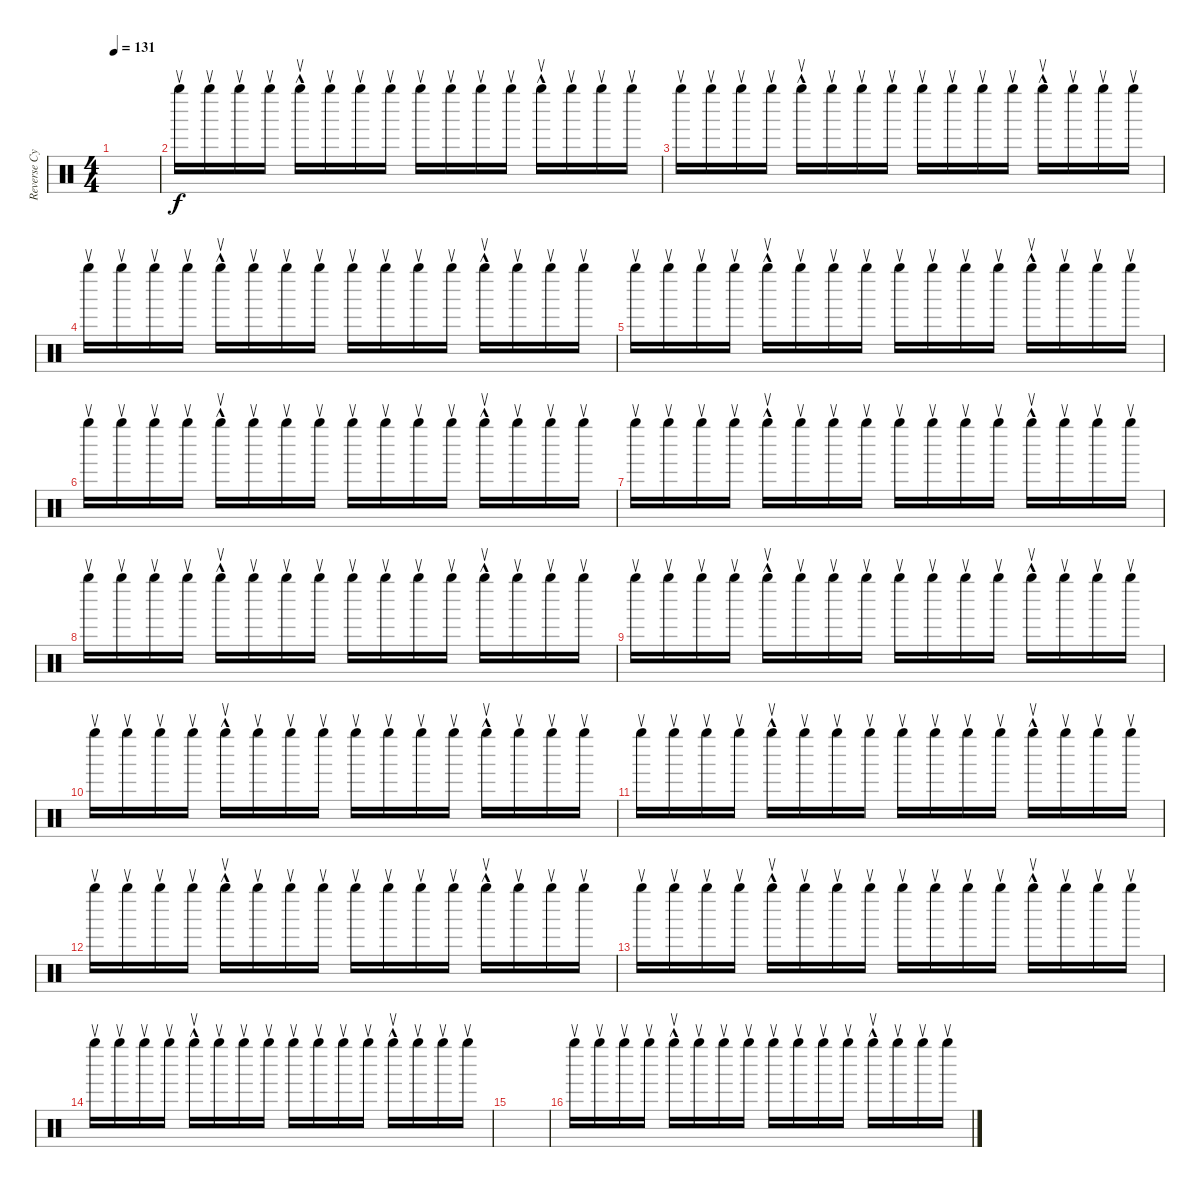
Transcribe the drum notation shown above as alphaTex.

\track ("Reverse Cymbal" "Reverse Cy") {instrument percussion}
\staff {score}
\articulation defaults
\ts (4 4)
\tempo 131
\clef neutral
\ks c
|
"Right Maraca (return)".16 "Right Maraca (return)".16 "Right Maraca (return)".16 "Right Maraca (return)".16 "Right Maraca (return)"{hac}.16 "Right Maraca (return)".16 "Right Maraca (return)".16 "Right Maraca (return)".16 "Right Maraca (return)".16 "Right Maraca (return)".16 "Right Maraca (return)".16 "Right Maraca (return)".16 "Right Maraca (return)"{hac}.16 "Right Maraca (return)".16 "Right Maraca (return)".16 "Right Maraca (return)".16 |
"Right Maraca (return)".16 "Right Maraca (return)".16 "Right Maraca (return)".16 "Right Maraca (return)".16 "Right Maraca (return)"{hac}.16 "Right Maraca (return)".16 "Right Maraca (return)".16 "Right Maraca (return)".16 "Right Maraca (return)".16 "Right Maraca (return)".16 "Right Maraca (return)".16 "Right Maraca (return)".16 "Right Maraca (return)"{hac}.16 "Right Maraca (return)".16 "Right Maraca (return)".16 "Right Maraca (return)".16 |
"Right Maraca (return)".16 "Right Maraca (return)".16 "Right Maraca (return)".16 "Right Maraca (return)".16 "Right Maraca (return)"{hac}.16 "Right Maraca (return)".16 "Right Maraca (return)".16 "Right Maraca (return)".16 "Right Maraca (return)".16 "Right Maraca (return)".16 "Right Maraca (return)".16 "Right Maraca (return)".16 "Right Maraca (return)"{hac}.16 "Right Maraca (return)".16 "Right Maraca (return)".16 "Right Maraca (return)".16 |
"Right Maraca (return)".16 "Right Maraca (return)".16 "Right Maraca (return)".16 "Right Maraca (return)".16 "Right Maraca (return)"{hac}.16 "Right Maraca (return)".16 "Right Maraca (return)".16 "Right Maraca (return)".16 "Right Maraca (return)".16 "Right Maraca (return)".16 "Right Maraca (return)".16 "Right Maraca (return)".16 "Right Maraca (return)"{hac}.16 "Right Maraca (return)".16 "Right Maraca (return)".16 "Right Maraca (return)".16 |
"Right Maraca (return)".16 "Right Maraca (return)".16 "Right Maraca (return)".16 "Right Maraca (return)".16 "Right Maraca (return)"{hac}.16 "Right Maraca (return)".16 "Right Maraca (return)".16 "Right Maraca (return)".16 "Right Maraca (return)".16 "Right Maraca (return)".16 "Right Maraca (return)".16 "Right Maraca (return)".16 "Right Maraca (return)"{hac}.16 "Right Maraca (return)".16 "Right Maraca (return)".16 "Right Maraca (return)".16 |
"Right Maraca (return)".16 "Right Maraca (return)".16 "Right Maraca (return)".16 "Right Maraca (return)".16 "Right Maraca (return)"{hac}.16 "Right Maraca (return)".16 "Right Maraca (return)".16 "Right Maraca (return)".16 "Right Maraca (return)".16 "Right Maraca (return)".16 "Right Maraca (return)".16 "Right Maraca (return)".16 "Right Maraca (return)"{hac}.16 "Right Maraca (return)".16 "Right Maraca (return)".16 "Right Maraca (return)".16 |
"Right Maraca (return)".16 "Right Maraca (return)".16 "Right Maraca (return)".16 "Right Maraca (return)".16 "Right Maraca (return)"{hac}.16 "Right Maraca (return)".16 "Right Maraca (return)".16 "Right Maraca (return)".16 "Right Maraca (return)".16 "Right Maraca (return)".16 "Right Maraca (return)".16 "Right Maraca (return)".16 "Right Maraca (return)"{hac}.16 "Right Maraca (return)".16 "Right Maraca (return)".16 "Right Maraca (return)".16 |
"Right Maraca (return)".16 "Right Maraca (return)".16 "Right Maraca (return)".16 "Right Maraca (return)".16 "Right Maraca (return)"{hac}.16 "Right Maraca (return)".16 "Right Maraca (return)".16 "Right Maraca (return)".16 "Right Maraca (return)".16 "Right Maraca (return)".16 "Right Maraca (return)".16 "Right Maraca (return)".16 "Right Maraca (return)"{hac}.16 "Right Maraca (return)".16 "Right Maraca (return)".16 "Right Maraca (return)".16 |
"Right Maraca (return)".16 "Right Maraca (return)".16 "Right Maraca (return)".16 "Right Maraca (return)".16 "Right Maraca (return)"{hac}.16 "Right Maraca (return)".16 "Right Maraca (return)".16 "Right Maraca (return)".16 "Right Maraca (return)".16 "Right Maraca (return)".16 "Right Maraca (return)".16 "Right Maraca (return)".16 "Right Maraca (return)"{hac}.16 "Right Maraca (return)".16 "Right Maraca (return)".16 "Right Maraca (return)".16 |
"Right Maraca (return)".16 "Right Maraca (return)".16 "Right Maraca (return)".16 "Right Maraca (return)".16 "Right Maraca (return)"{hac}.16 "Right Maraca (return)".16 "Right Maraca (return)".16 "Right Maraca (return)".16 "Right Maraca (return)".16 "Right Maraca (return)".16 "Right Maraca (return)".16 "Right Maraca (return)".16 "Right Maraca (return)"{hac}.16 "Right Maraca (return)".16 "Right Maraca (return)".16 "Right Maraca (return)".16 |
"Right Maraca (return)".16 "Right Maraca (return)".16 "Right Maraca (return)".16 "Right Maraca (return)".16 "Right Maraca (return)"{hac}.16 "Right Maraca (return)".16 "Right Maraca (return)".16 "Right Maraca (return)".16 "Right Maraca (return)".16 "Right Maraca (return)".16 "Right Maraca (return)".16 "Right Maraca (return)".16 "Right Maraca (return)"{hac}.16 "Right Maraca (return)".16 "Right Maraca (return)".16 "Right Maraca (return)".16 |
"Right Maraca (return)".16 "Right Maraca (return)".16 "Right Maraca (return)".16 "Right Maraca (return)".16 "Right Maraca (return)"{hac}.16 "Right Maraca (return)".16 "Right Maraca (return)".16 "Right Maraca (return)".16 "Right Maraca (return)".16 "Right Maraca (return)".16 "Right Maraca (return)".16 "Right Maraca (return)".16 "Right Maraca (return)"{hac}.16 "Right Maraca (return)".16 "Right Maraca (return)".16 "Right Maraca (return)".16 |
"Right Maraca (return)".16 "Right Maraca (return)".16 "Right Maraca (return)".16 "Right Maraca (return)".16 "Right Maraca (return)"{hac}.16 "Right Maraca (return)".16 "Right Maraca (return)".16 "Right Maraca (return)".16 "Right Maraca (return)".16 "Right Maraca (return)".16 "Right Maraca (return)".16 "Right Maraca (return)".16 "Right Maraca (return)"{hac}.16 "Right Maraca (return)".16 "Right Maraca (return)".16 "Right Maraca (return)".16 |
|
"Right Maraca (return)".16 "Right Maraca (return)".16 "Right Maraca (return)".16 "Right Maraca (return)".16 "Right Maraca (return)"{hac}.16 "Right Maraca (return)".16 "Right Maraca (return)".16 "Right Maraca (return)".16 "Right Maraca (return)".16 "Right Maraca (return)".16 "Right Maraca (return)".16 "Right Maraca (return)".16 "Right Maraca (return)"{hac}.16 "Right Maraca (return)".16 "Right Maraca (return)".16 "Right Maraca (return)".16
